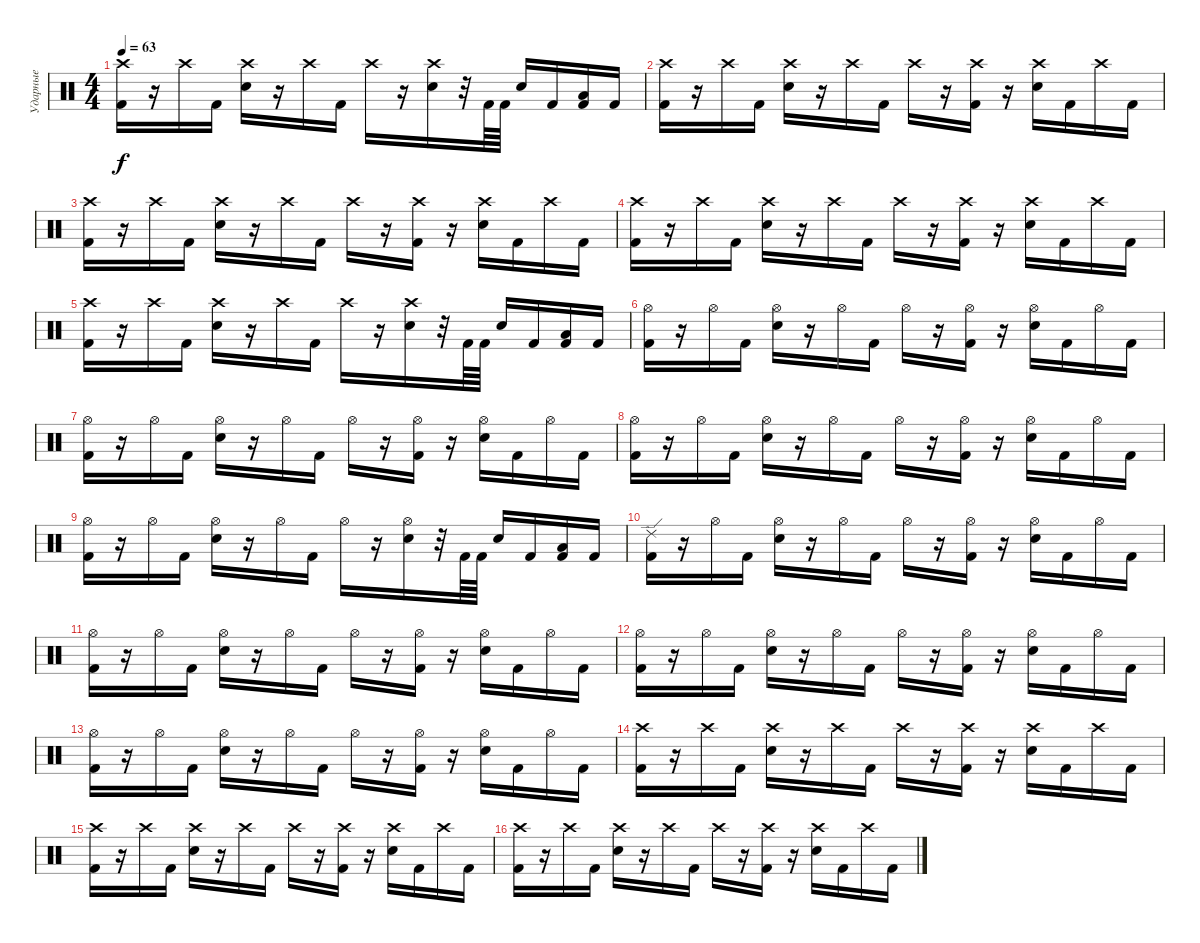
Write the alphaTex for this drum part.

\track ("Ударные" "Ударные") {instrument percussion}
\staff {score}
\articulation defaults
\ts (4 4)
\tempo 63
\clef neutral
\ks c
("Crash high (hit)" "Kick (hit) 2").16{dy f} r.16 "Crash high (hit)".16 "Kick (hit) 2".16 ("Crash high (hit)" "Electric Snare (hit)").16 r.16 "Crash high (hit)".16 "Kick (hit) 2".16 "Crash high (hit)".16 r.16 ("Crash high (hit)" "Electric Snare (hit)").16 r.32 "Kick (hit) 2".64 "Kick (hit) 2".64 "Electric Snare (hit)".16 "Kick (hit) 2".16 ("Low Floor Tom (hit)" "Kick (hit) 2").16 "Kick (hit) 2".16 |
("Crash high (hit)" "Kick (hit) 2").16 r.16 "Crash high (hit)".16 "Kick (hit) 2".16 ("Crash high (hit)" "Electric Snare (hit)").16 r.16 "Crash high (hit)".16 "Kick (hit) 2".16 "Crash high (hit)".16 r.16 ("Crash high (hit)" "Kick (hit) 2").16 r.16 ("Crash high (hit)" "Electric Snare (hit)").16 "Kick (hit) 2".16 "Crash high (hit)".16 "Kick (hit) 2".16 |
("Crash high (hit)" "Kick (hit) 2").16 r.16 "Crash high (hit)".16 "Kick (hit) 2".16 ("Crash high (hit)" "Electric Snare (hit)").16 r.16 "Crash high (hit)".16 "Kick (hit) 2".16 "Crash high (hit)".16 r.16 ("Crash high (hit)" "Kick (hit) 2").16 r.16 ("Crash high (hit)" "Electric Snare (hit)").16 "Kick (hit) 2".16 "Crash high (hit)".16 "Kick (hit) 2".16 |
("Crash high (hit)" "Kick (hit) 2").16 r.16 "Crash high (hit)".16 "Kick (hit) 2".16 ("Crash high (hit)" "Electric Snare (hit)").16 r.16 "Crash high (hit)".16 "Kick (hit) 2".16 "Crash high (hit)".16 r.16 ("Crash high (hit)" "Kick (hit) 2").16 r.16 ("Crash high (hit)" "Electric Snare (hit)").16 "Kick (hit) 2".16 "Crash high (hit)".16 "Kick (hit) 2".16 |
("Crash high (hit)" "Kick (hit) 2").16 r.16 "Crash high (hit)".16 "Kick (hit) 2".16 ("Crash high (hit)" "Electric Snare (hit)").16 r.16 "Crash high (hit)".16 "Kick (hit) 2".16 "Crash high (hit)".16 r.16 ("Crash high (hit)" "Electric Snare (hit)").16 r.32 "Kick (hit) 2".64 "Kick (hit) 2".64 "Electric Snare (hit)".16 "Kick (hit) 2".16 ("Low Floor Tom (hit)" "Kick (hit) 2").16 "Kick (hit) 2".16 |
("Hi-Hat (open)" "Kick (hit) 2").16 r.16 "Hi-Hat (open)".16 "Kick (hit) 2".16 ("Hi-Hat (open)" "Electric Snare (hit)").16 r.16 "Hi-Hat (open)".16 "Kick (hit) 2".16 "Hi-Hat (open)".16 r.16 ("Hi-Hat (open)" "Kick (hit) 2").16 r.16 ("Hi-Hat (open)" "Electric Snare (hit)").16 "Kick (hit) 2".16 "Hi-Hat (open)".16 "Kick (hit) 2".16 |
("Hi-Hat (open)" "Kick (hit) 2").16 r.16 "Hi-Hat (open)".16 "Kick (hit) 2".16 ("Hi-Hat (open)" "Electric Snare (hit)").16 r.16 "Hi-Hat (open)".16 "Kick (hit) 2".16 "Hi-Hat (open)".16 r.16 ("Hi-Hat (open)" "Kick (hit) 2").16 r.16 ("Hi-Hat (open)" "Electric Snare (hit)").16 "Kick (hit) 2".16 "Hi-Hat (open)".16 "Kick (hit) 2".16 |
("Hi-Hat (open)" "Kick (hit) 2").16 r.16 "Hi-Hat (open)".16 "Kick (hit) 2".16 ("Hi-Hat (open)" "Electric Snare (hit)").16 r.16 "Hi-Hat (open)".16 "Kick (hit) 2".16 "Hi-Hat (open)".16 r.16 ("Hi-Hat (open)" "Kick (hit) 2").16 r.16 ("Hi-Hat (open)" "Electric Snare (hit)").16 "Kick (hit) 2".16 "Hi-Hat (open)".16 "Kick (hit) 2".16 |
("Hi-Hat (open)" "Kick (hit) 2").16 r.16 "Hi-Hat (open)".16 "Kick (hit) 2".16 ("Hi-Hat (open)" "Electric Snare (hit)").16 r.16 "Hi-Hat (open)".16 "Kick (hit) 2".16 "Hi-Hat (open)".16 r.16 ("Hi-Hat (open)" "Electric Snare (hit)").16 r.32 "Kick (hit) 2".64 "Kick (hit) 2".64 "Electric Snare (hit)".16 "Kick (hit) 2".16 ("Low Floor Tom (hit)" "Kick (hit) 2").16 "Kick (hit) 2".16 |
("Ride (edge) 2" "Kick (hit) 2").16 r.16 "Hi-Hat (open)".16 "Kick (hit) 2".16 ("Hi-Hat (open)" "Electric Snare (hit)").16 r.16 "Hi-Hat (open)".16 "Kick (hit) 2".16 "Hi-Hat (open)".16 r.16 ("Hi-Hat (open)" "Kick (hit) 2").16 r.16 ("Hi-Hat (open)" "Electric Snare (hit)").16 "Kick (hit) 2".16 "Hi-Hat (open)".16 "Kick (hit) 2".16 |
("Hi-Hat (open)" "Kick (hit) 2").16 r.16 "Hi-Hat (open)".16 "Kick (hit) 2".16 ("Hi-Hat (open)" "Electric Snare (hit)").16 r.16 "Hi-Hat (open)".16 "Kick (hit) 2".16 "Hi-Hat (open)".16 r.16 ("Hi-Hat (open)" "Kick (hit) 2").16 r.16 ("Hi-Hat (open)" "Electric Snare (hit)").16 "Kick (hit) 2".16 "Hi-Hat (open)".16 "Kick (hit) 2".16 |
("Hi-Hat (open)" "Kick (hit) 2").16 r.16 "Hi-Hat (open)".16 "Kick (hit) 2".16 ("Hi-Hat (open)" "Electric Snare (hit)").16 r.16 "Hi-Hat (open)".16 "Kick (hit) 2".16 "Hi-Hat (open)".16 r.16 ("Hi-Hat (open)" "Kick (hit) 2").16 r.16 ("Hi-Hat (open)" "Electric Snare (hit)").16 "Kick (hit) 2".16 "Hi-Hat (open)".16 "Kick (hit) 2".16 |
("Hi-Hat (open)" "Kick (hit) 2").16 r.16 "Hi-Hat (open)".16 "Kick (hit) 2".16 ("Hi-Hat (open)" "Electric Snare (hit)").16 r.16 "Hi-Hat (open)".16 "Kick (hit) 2".16 "Hi-Hat (open)".16 r.16 ("Hi-Hat (open)" "Kick (hit) 2").16 r.16 ("Hi-Hat (open)" "Electric Snare (hit)").16 "Kick (hit) 2".16 "Hi-Hat (open)".16 "Kick (hit) 2".16 |
("Crash high (hit)" "Kick (hit) 2").16 r.16 "Crash high (hit)".16 "Kick (hit) 2".16 ("Crash high (hit)" "Electric Snare (hit)").16 r.16 "Crash high (hit)".16 "Kick (hit) 2".16 "Crash high (hit)".16 r.16 ("Crash high (hit)" "Kick (hit) 2").16 r.16 ("Crash high (hit)" "Electric Snare (hit)").16 "Kick (hit) 2".16 "Crash high (hit)".16 "Kick (hit) 2".16 |
("Crash high (hit)" "Kick (hit) 2").16 r.16 "Crash high (hit)".16 "Kick (hit) 2".16 ("Crash high (hit)" "Electric Snare (hit)").16 r.16 "Crash high (hit)".16 "Kick (hit) 2".16 "Crash high (hit)".16 r.16 ("Crash high (hit)" "Kick (hit) 2").16 r.16 ("Crash high (hit)" "Electric Snare (hit)").16 "Kick (hit) 2".16 "Crash high (hit)".16 "Kick (hit) 2".16 |
("Crash high (hit)" "Kick (hit) 2").16 r.16 "Crash high (hit)".16 "Kick (hit) 2".16 ("Crash high (hit)" "Electric Snare (hit)").16 r.16 "Crash high (hit)".16 "Kick (hit) 2".16 "Crash high (hit)".16 r.16 ("Crash high (hit)" "Kick (hit) 2").16 r.16 ("Crash high (hit)" "Electric Snare (hit)").16 "Kick (hit) 2".16 "Crash high (hit)".16 "Kick (hit) 2".16
